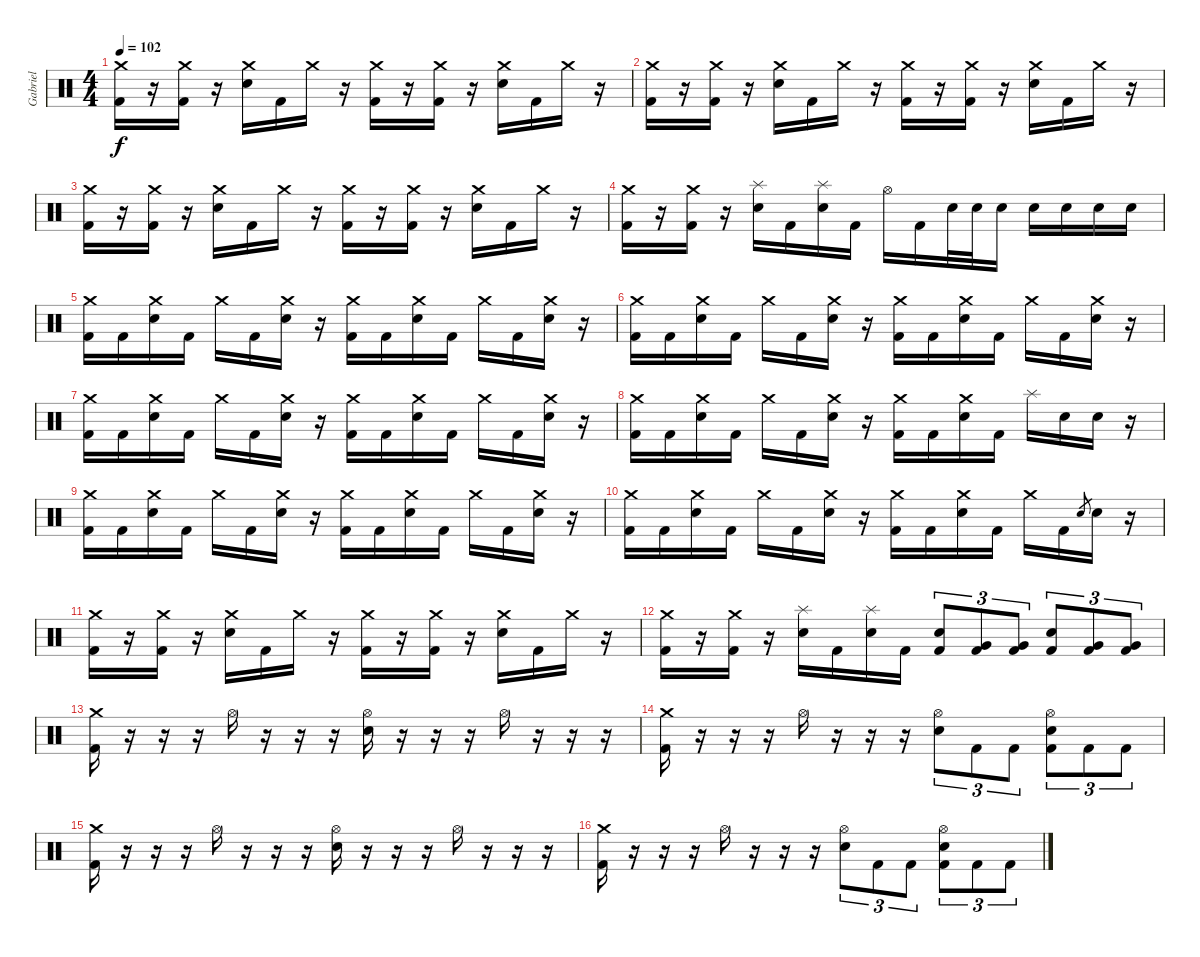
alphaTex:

\track ("Gabriel" "Gabriel") {instrument percussion}
\staff {score}
\articulation defaults
\ts (4 4)
\tempo 102
\clef neutral
\ks c
("Crash medium (hit)" "Kick (hit) 2").16{dy f} r.16 ("Crash medium (hit)" "Kick (hit) 2").16 r.16 ("Crash medium (hit)" "Electric Snare (hit)").16 "Kick (hit) 2".16 "Crash medium (hit)".16 r.16 ("Crash medium (hit)" "Kick (hit) 2").16 r.16 ("Crash medium (hit)" "Kick (hit) 2").16 r.16 ("Crash medium (hit)" "Electric Snare (hit)").16 "Kick (hit) 2".16 "Crash medium (hit)".16 r.16 |
("Crash medium (hit)" "Kick (hit) 2").16 r.16 ("Crash medium (hit)" "Kick (hit) 2").16 r.16 ("Crash medium (hit)" "Electric Snare (hit)").16 "Kick (hit) 2".16 "Crash medium (hit)".16 r.16 ("Crash medium (hit)" "Kick (hit) 2").16 r.16 ("Crash medium (hit)" "Kick (hit) 2").16 r.16 ("Crash medium (hit)" "Electric Snare (hit)").16 "Kick (hit) 2".16 "Crash medium (hit)".16 r.16 |
("Crash medium (hit)" "Kick (hit) 2").16 r.16 ("Crash medium (hit)" "Kick (hit) 2").16 r.16 ("Crash medium (hit)" "Electric Snare (hit)").16 "Kick (hit) 2".16 "Crash medium (hit)".16 r.16 ("Crash medium (hit)" "Kick (hit) 2").16 r.16 ("Crash medium (hit)" "Kick (hit) 2").16 r.16 ("Crash medium (hit)" "Electric Snare (hit)").16 "Kick (hit) 2".16 "Crash medium (hit)".16 r.16 |
("Crash medium (hit)" "Kick (hit) 2").16 r.16 ("Crash medium (hit)" "Kick (hit) 2").16 r.16 ("Splash (hit)" "Electric Snare (hit)").16 "Kick (hit) 2".16 ("Splash (hit)" "Electric Snare (hit)").16 "Kick (hit) 2".16 "Hi-Hat (open)".16 "Kick (hit) 2".16 "Electric Snare (hit)".32 "Electric Snare (hit)".32 "Electric Snare (hit)".16 "Electric Snare (hit)".16 "Electric Snare (hit)".16 "Electric Snare (hit)".16 "Electric Snare (hit)".16 |
("Crash medium (hit)" "Kick (hit) 2").16 "Kick (hit) 2".16 ("Crash medium (hit)" "Electric Snare (hit)").16 "Kick (hit) 2".16 "Crash medium (hit)".16 "Kick (hit) 2".16 ("Crash medium (hit)" "Electric Snare (hit)").16 r.16 ("Crash medium (hit)" "Kick (hit) 2").16 "Kick (hit) 2".16 ("Crash medium (hit)" "Electric Snare (hit)").16 "Kick (hit) 2".16 "Crash medium (hit)".16 "Kick (hit) 2".16 ("Crash medium (hit)" "Electric Snare (hit)").16 r.16 |
("Crash medium (hit)" "Kick (hit) 2").16 "Kick (hit) 2".16 ("Crash medium (hit)" "Electric Snare (hit)").16 "Kick (hit) 2".16 "Crash medium (hit)".16 "Kick (hit) 2".16 ("Crash medium (hit)" "Electric Snare (hit)").16 r.16 ("Crash medium (hit)" "Kick (hit) 2").16 "Kick (hit) 2".16 ("Crash medium (hit)" "Electric Snare (hit)").16 "Kick (hit) 2".16 "Crash medium (hit)".16 "Kick (hit) 2".16 ("Crash medium (hit)" "Electric Snare (hit)").16 r.16 |
("Crash medium (hit)" "Kick (hit) 2").16 "Kick (hit) 2".16 ("Crash medium (hit)" "Electric Snare (hit)").16 "Kick (hit) 2".16 "Crash medium (hit)".16 "Kick (hit) 2".16 ("Crash medium (hit)" "Electric Snare (hit)").16 r.16 ("Crash medium (hit)" "Kick (hit) 2").16 "Kick (hit) 2".16 ("Crash medium (hit)" "Electric Snare (hit)").16 "Kick (hit) 2".16 "Crash medium (hit)".16 "Kick (hit) 2".16 ("Crash medium (hit)" "Electric Snare (hit)").16 r.16 |
("Crash medium (hit)" "Kick (hit) 2").16 "Kick (hit) 2".16 ("Crash medium (hit)" "Electric Snare (hit)").16 "Kick (hit) 2".16 "Crash medium (hit)".16 "Kick (hit) 2".16 ("Crash medium (hit)" "Electric Snare (hit)").16 r.16 ("Crash medium (hit)" "Kick (hit) 2").16 "Kick (hit) 2".16 ("Crash medium (hit)" "Electric Snare (hit)").16 "Kick (hit) 2".16 "Splash (hit)".16 "Electric Snare (hit)".16 "Electric Snare (hit)".16 r.16 |
("Crash medium (hit)" "Kick (hit) 2").16 "Kick (hit) 2".16 ("Crash medium (hit)" "Electric Snare (hit)").16 "Kick (hit) 2".16 "Crash medium (hit)".16 "Kick (hit) 2".16 ("Crash medium (hit)" "Electric Snare (hit)").16 r.16 ("Crash medium (hit)" "Kick (hit) 2").16 "Kick (hit) 2".16 ("Crash medium (hit)" "Electric Snare (hit)").16 "Kick (hit) 2".16 "Crash medium (hit)".16 "Kick (hit) 2".16 ("Crash medium (hit)" "Electric Snare (hit)").16 r.16 |
("Crash medium (hit)" "Kick (hit) 2").16 "Kick (hit) 2".16 ("Crash medium (hit)" "Electric Snare (hit)").16 "Kick (hit) 2".16 "Crash medium (hit)".16 "Kick (hit) 2".16 ("Crash medium (hit)" "Electric Snare (hit)").16 r.16 ("Crash medium (hit)" "Kick (hit) 2").16 "Kick (hit) 2".16 ("Crash medium (hit)" "Electric Snare (hit)").16 "Kick (hit) 2".16 "Crash medium (hit)".16 "Kick (hit) 2".16 "Electric Snare (hit)".8{gr} "Electric Snare (hit)".16 r.16 |
("Crash medium (hit)" "Kick (hit) 2").16 r.16 ("Crash medium (hit)" "Kick (hit) 2").16 r.16 ("Crash medium (hit)" "Electric Snare (hit)").16 "Kick (hit) 2".16 "Crash medium (hit)".16 r.16 ("Crash medium (hit)" "Kick (hit) 2").16 r.16 ("Crash medium (hit)" "Kick (hit) 2").16 r.16 ("Crash medium (hit)" "Electric Snare (hit)").16 "Kick (hit) 2".16 "Crash medium (hit)".16 r.16 |
("Crash medium (hit)" "Kick (hit) 2").16 r.16 ("Crash medium (hit)" "Kick (hit) 2").16 r.16 ("Splash (hit)" "Electric Snare (hit)").16 "Kick (hit) 2".16 ("Splash (hit)" "Electric Snare (hit)").16 "Kick (hit) 2".16 ("Electric Snare (hit)" "Kick (hit) 2").8{tu (3 2)} ("Very Low Tom (hit)" "Kick (hit) 2").8{tu (3 2)} ("Very Low Tom (hit)" "Kick (hit) 2").8{tu (3 2)} ("Electric Snare (hit)" "Kick (hit) 2").8{tu (3 2)} ("Very Low Tom (hit)" "Kick (hit) 2").8{tu (3 2)} ("Very Low Tom (hit)" "Kick (hit) 2").8{tu (3 2)} |
("Crash medium (hit)" "Kick (hit) 2").16 r.16 r.16 r.16 "Hi-Hat (open)".16 r.16 r.16 r.16 ("Hi-Hat (open)" "Electric Snare (hit)").16 r.16 r.16 r.16 "Hi-Hat (open)".16 r.16 r.16 r.16 |
("Crash medium (hit)" "Kick (hit) 2").16 r.16 r.16 r.16 "Hi-Hat (open)".16 r.16 r.16 r.16 ("Hi-Hat (open)" "Electric Snare (hit)").8{tu (3 2)} "Kick (hit) 2".8{tu (3 2)} "Kick (hit) 2".8{tu (3 2)} ("Hi-Hat (open)" "Electric Snare (hit)" "Kick (hit) 2").8{tu (3 2)} "Kick (hit) 2".8{tu (3 2)} "Kick (hit) 2".8{tu (3 2)} |
("Crash medium (hit)" "Kick (hit) 2").16 r.16 r.16 r.16 "Hi-Hat (open)".16 r.16 r.16 r.16 ("Hi-Hat (open)" "Electric Snare (hit)").16 r.16 r.16 r.16 "Hi-Hat (open)".16 r.16 r.16 r.16 |
("Crash medium (hit)" "Kick (hit) 2").16 r.16 r.16 r.16 "Hi-Hat (open)".16 r.16 r.16 r.16 ("Hi-Hat (open)" "Electric Snare (hit)").8{tu (3 2)} "Kick (hit) 2".8{tu (3 2)} "Kick (hit) 2".8{tu (3 2)} ("Hi-Hat (open)" "Electric Snare (hit)" "Kick (hit) 2").8{tu (3 2)} "Kick (hit) 2".8{tu (3 2)} "Kick (hit) 2".8{tu (3 2)}
